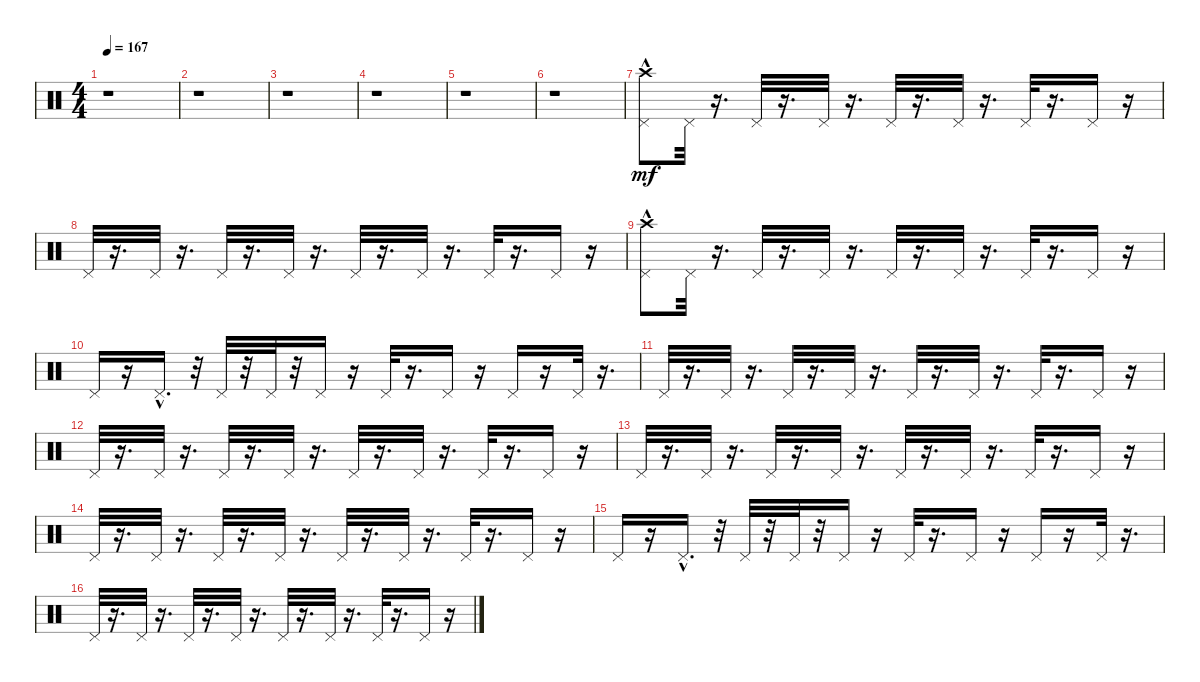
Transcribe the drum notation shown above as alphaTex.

\track "" {instrument percussion}
\staff {score}
\articulation defaults
\ts (4 4)
\tempo 167
\clef neutral
\ks c
r.1{dy mf} |
r.1 |
r.1 |
r.1 |
r.1 |
r.1 |
("Crash high (hit)"{hac} "Pedal Hi-Hat (hit)").8 "Pedal Hi-Hat (hit)".32 r.16{d} "Pedal Hi-Hat (hit)".32 r.16{d} "Pedal Hi-Hat (hit)".32 r.16{d} "Pedal Hi-Hat (hit)".32 r.16{d} "Pedal Hi-Hat (hit)".32 r.16{d} "Pedal Hi-Hat (hit)".32 r.16{d} "Pedal Hi-Hat (hit)".16 r.16 |
"Pedal Hi-Hat (hit)".32 r.16{d} "Pedal Hi-Hat (hit)".32 r.16{d} "Pedal Hi-Hat (hit)".32 r.16{d} "Pedal Hi-Hat (hit)".32 r.16{d} "Pedal Hi-Hat (hit)".32 r.16{d} "Pedal Hi-Hat (hit)".32 r.16{d} "Pedal Hi-Hat (hit)".32 r.16{d} "Pedal Hi-Hat (hit)".16 r.16 |
("Crash high (hit)"{hac} "Pedal Hi-Hat (hit)").8 "Pedal Hi-Hat (hit)".32 r.16{d} "Pedal Hi-Hat (hit)".32 r.16{d} "Pedal Hi-Hat (hit)".32 r.16{d} "Pedal Hi-Hat (hit)".32 r.16{d} "Pedal Hi-Hat (hit)".32 r.16{d} "Pedal Hi-Hat (hit)".32 r.16{d} "Pedal Hi-Hat (hit)".16 r.16 |
"Pedal Hi-Hat (hit)".16 r.16 "Pedal Hi-Hat (hit)"{hac}.16{d} r.32 "Pedal Hi-Hat (hit)".32 r.32 "Pedal Hi-Hat (hit)".32 r.32 "Pedal Hi-Hat (hit)".16 r.16 "Pedal Hi-Hat (hit)".32 r.16{d} "Pedal Hi-Hat (hit)".16 r.16 "Pedal Hi-Hat (hit)".16 r.16 "Pedal Hi-Hat (hit)".32 r.16{d} |
"Pedal Hi-Hat (hit)".32 r.16{d} "Pedal Hi-Hat (hit)".32 r.16{d} "Pedal Hi-Hat (hit)".32 r.16{d} "Pedal Hi-Hat (hit)".32 r.16{d} "Pedal Hi-Hat (hit)".32 r.16{d} "Pedal Hi-Hat (hit)".32 r.16{d} "Pedal Hi-Hat (hit)".32 r.16{d} "Pedal Hi-Hat (hit)".16 r.16 |
"Pedal Hi-Hat (hit)".32 r.16{d} "Pedal Hi-Hat (hit)".32 r.16{d} "Pedal Hi-Hat (hit)".32 r.16{d} "Pedal Hi-Hat (hit)".32 r.16{d} "Pedal Hi-Hat (hit)".32 r.16{d} "Pedal Hi-Hat (hit)".32 r.16{d} "Pedal Hi-Hat (hit)".32 r.16{d} "Pedal Hi-Hat (hit)".16 r.16 |
"Pedal Hi-Hat (hit)".32 r.16{d} "Pedal Hi-Hat (hit)".32 r.16{d} "Pedal Hi-Hat (hit)".32 r.16{d} "Pedal Hi-Hat (hit)".32 r.16{d} "Pedal Hi-Hat (hit)".32 r.16{d} "Pedal Hi-Hat (hit)".32 r.16{d} "Pedal Hi-Hat (hit)".32 r.16{d} "Pedal Hi-Hat (hit)".16 r.16 |
"Pedal Hi-Hat (hit)".32 r.16{d} "Pedal Hi-Hat (hit)".32 r.16{d} "Pedal Hi-Hat (hit)".32 r.16{d} "Pedal Hi-Hat (hit)".32 r.16{d} "Pedal Hi-Hat (hit)".32 r.16{d} "Pedal Hi-Hat (hit)".32 r.16{d} "Pedal Hi-Hat (hit)".32 r.16{d} "Pedal Hi-Hat (hit)".16 r.16 |
"Pedal Hi-Hat (hit)".16 r.16 "Pedal Hi-Hat (hit)"{hac}.16{d} r.32 "Pedal Hi-Hat (hit)".32 r.32 "Pedal Hi-Hat (hit)".32 r.32 "Pedal Hi-Hat (hit)".16 r.16 "Pedal Hi-Hat (hit)".32 r.16{d} "Pedal Hi-Hat (hit)".16 r.16 "Pedal Hi-Hat (hit)".16 r.16 "Pedal Hi-Hat (hit)".32 r.16{d} |
"Pedal Hi-Hat (hit)".32 r.16{d} "Pedal Hi-Hat (hit)".32 r.16{d} "Pedal Hi-Hat (hit)".32 r.16{d} "Pedal Hi-Hat (hit)".32 r.16{d} "Pedal Hi-Hat (hit)".32 r.16{d} "Pedal Hi-Hat (hit)".32 r.16{d} "Pedal Hi-Hat (hit)".32 r.16{d} "Pedal Hi-Hat (hit)".16 r.16
